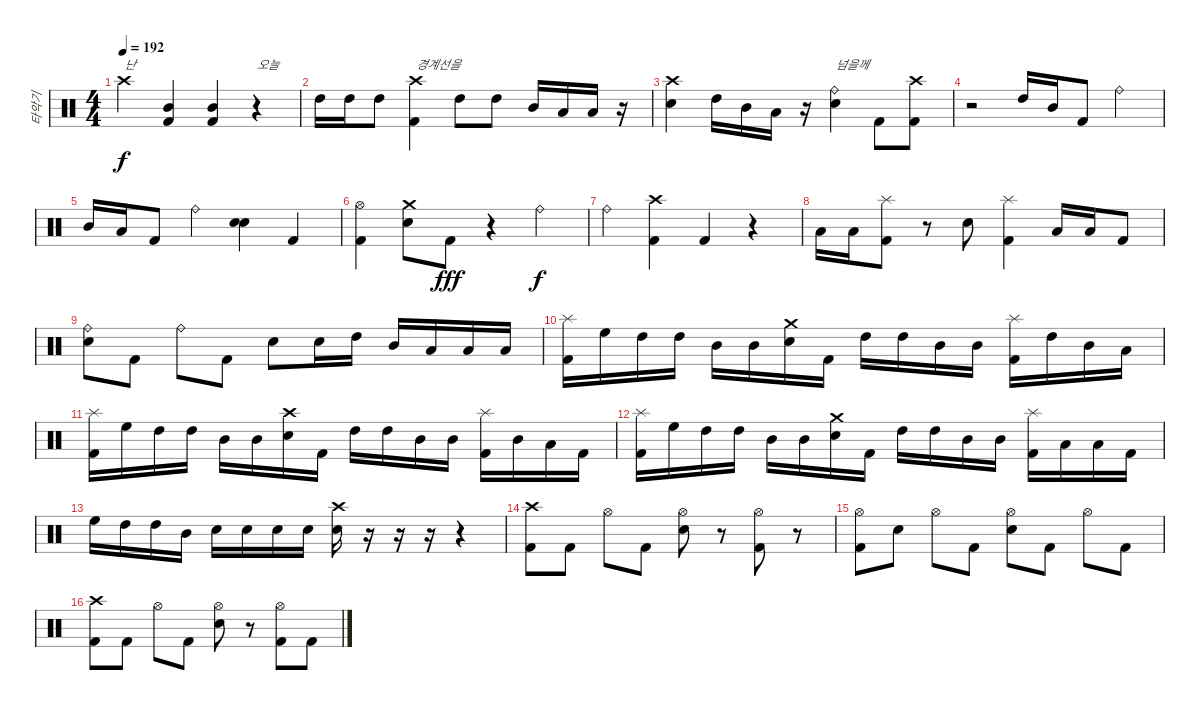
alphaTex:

\track ("타악기" "타악기") {instrument percussion}
\staff {score}
\articulation defaults
\ts (4 4)
\tempo 192
\clef neutral
\ks c "Crash high (hit)".4{txt "난" dy f}
("Mid Tom (hit)" "Kick (hit) 2").4{bd 240} ("Mid Tom (hit)" "Kick (hit) 2").4{bd 240} r.4{txt "오늘"} |
"High Tom (hit)".16 "High Tom (hit)".16 "High Tom (hit)".8 ("Crash high (hit)" "Kick (hit) 2").4{txt "경계선을"} "High Tom (hit)".8 "High Tom (hit)".8 "Mid Tom (hit)".16 "Low Tom (hit)".16 "Low Tom (hit)".16 r.16 |
("Crash high (hit)" "Snare (hit) 2").4 "High Tom (hit)".16 "Mid Tom (hit)".16 "Low Tom (hit)".16 r.16 ("Ride (bell)" "Snare (hit) 2").4{txt "넘을께"} "Kick (hit) 2".8 ("Crash high (hit)" "Kick (hit) 2").8 |
r.2 "High Tom (hit)".16 "Mid Tom (hit)".16 "Kick (hit) 2".8 "Ride (bell)".4 |
"Mid Tom (hit)".16 "Low Tom (hit)".16 "Kick (hit) 2".8 "Ride (bell)".4 ("Snare (hit) 2" "Snare (hit) 2").4{bd 480} "Kick (hit) 2".4 |
("Hi-Hat (open)" "Kick (hit) 2").4 ("Crash medium (hit)" "Snare (hit) 2").8 "Kick (hit) 2".8{dy fff} r.4 "Ride (bell)".4{dy f} |
"Ride (bell)".4 ("Crash high (hit)" "Kick (hit) 2").4 "Kick (hit) 2".4 r.4 |
"Low Tom (hit)".16 "Low Tom (hit)".16 ("Splash (hit)" "Kick (hit) 2").8 r.8 "Snare (hit) 2".8 ("Splash (hit)" "Kick (hit) 2").4 "Low Tom (hit)".16 "Low Tom (hit)".16 "Kick (hit) 2".8 |
("Ride (bell)" "Snare (hit) 2").8 "Kick (hit) 2".8 "Ride (bell)".8 "Kick (hit) 2".8 "Snare (hit) 2".8 "Snare (hit) 2".16 "High Tom (hit)".16 "Mid Tom (hit)".16 "Low Tom (hit)".16 "Low Tom (hit)".16 "Low Tom (hit)".16 |
("Splash (hit)" "Kick (hit) 2").16 "High Floor Tom (hit)".16 "High Tom (hit)".16 "High Tom (hit)".16 "Mid Tom (hit)".16 "Mid Tom (hit)".16 ("Crash medium (hit)" "Snare (hit) 2").16 "Kick (hit) 2".16 "High Tom (hit)".16 "High Tom (hit)".16 "Mid Tom (hit)".16 "Mid Tom (hit)".16 ("Splash (hit)" "Kick (hit) 2").16 "High Tom (hit)".16 "Mid Tom (hit)".16 "Low Tom (hit)".16 |
("Splash (hit)" "Kick (hit) 2").16 "High Floor Tom (hit)".16 "High Tom (hit)".16 "High Tom (hit)".16 "Mid Tom (hit)".16 "Mid Tom (hit)".16 ("Crash high (hit)" "Snare (hit) 2").16 "Kick (hit) 2".16 "High Tom (hit)".16 "High Tom (hit)".16 "Mid Tom (hit)".16 "Mid Tom (hit)".16 ("Splash (hit)" "Kick (hit) 2").16 "Mid Tom (hit)".16 "Low Tom (hit)".16 "Kick (hit) 2".16 |
("Splash (hit)" "Kick (hit) 2").16 "High Floor Tom (hit)".16 "High Tom (hit)".16 "High Tom (hit)".16 "Mid Tom (hit)".16 "Mid Tom (hit)".16 ("Crash medium (hit)" "Snare (hit) 2").16 "Kick (hit) 2".16 "High Tom (hit)".16 "High Tom (hit)".16 "Mid Tom (hit)".16 "Mid Tom (hit)".16 ("Splash (hit)" "Kick (hit) 2").16 "Low Tom (hit)".16 "Low Tom (hit)".16 "Kick (hit) 2".16 |
"High Floor Tom (hit)".16 "High Tom (hit)".16 "High Tom (hit)".16 "Mid Tom (hit)".16 "Snare (hit) 2".16 "Snare (hit) 2".16 "Snare (hit) 2".16 "Snare (hit) 2".16 ("Crash high (hit)" "Snare (hit) 2").16 r.16 r.16 r.16 r.4 |
("Crash high (hit)" "Kick (hit) 2").8 "Kick (hit) 2".8 "Hi-Hat (open)".8 "Kick (hit) 2".8 ("Hi-Hat (open)" "Snare (hit) 2").8 r.8 ("Hi-Hat (open)" "Kick (hit) 2").8 r.8 |
("Hi-Hat (open)" "Kick (hit) 2").8 "Snare (hit) 2".8 "Hi-Hat (open)".8 "Kick (hit) 2".8 ("Hi-Hat (open)" "Snare (hit) 2").8 "Kick (hit) 2".8 "Hi-Hat (open)".8 "Kick (hit) 2".8 |
("Crash high (hit)" "Kick (hit) 2").8 "Kick (hit) 2".8 "Hi-Hat (open)".8 "Kick (hit) 2".8 ("Hi-Hat (open)" "Snare (hit) 2").8 r.8 ("Hi-Hat (open)" "Kick (hit) 2").8 "Kick (hit) 2".8
